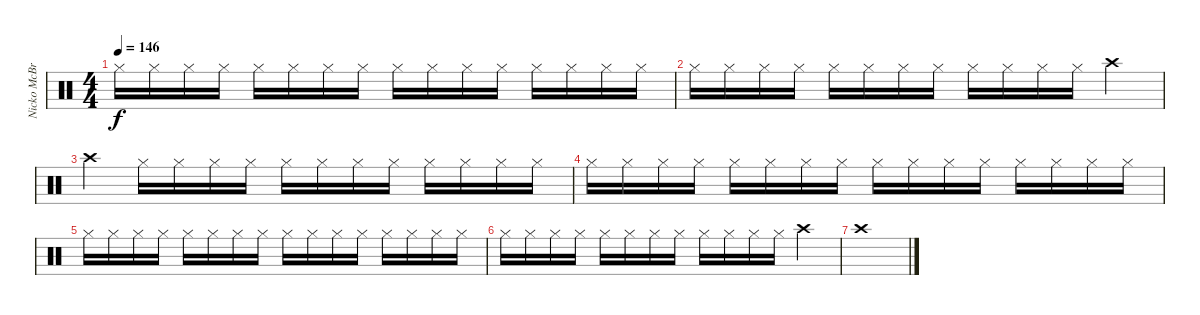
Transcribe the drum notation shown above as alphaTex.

\track ("Nicko McBrain" "Nicko McBr") {instrument percussion}
\staff {score}
\articulation defaults
\ts (4 4)
\tempo 146
\clef neutral
\ks c "Hi-Hat (closed)".16{dy f} "Hi-Hat (closed)".16 "Hi-Hat (closed)".16 "Hi-Hat (closed)".16 "Hi-Hat (closed)".16 "Hi-Hat (closed)".16 "Hi-Hat (closed)".16 "Hi-Hat (closed)".16 "Hi-Hat (closed)".16 "Hi-Hat (closed)".16 "Hi-Hat (closed)".16 "Hi-Hat (closed)".16 "Hi-Hat (closed)".16 "Hi-Hat (closed)".16 "Hi-Hat (closed)".16 "Hi-Hat (closed)".16
|
"Hi-Hat (closed)".16 "Hi-Hat (closed)".16 "Hi-Hat (closed)".16 "Hi-Hat (closed)".16 "Hi-Hat (closed)".16 "Hi-Hat (closed)".16 "Hi-Hat (closed)".16 "Hi-Hat (closed)".16 "Hi-Hat (closed)".16 "Hi-Hat (closed)".16 "Hi-Hat (closed)".16 "Hi-Hat (closed)".16 "Crash high (hit)".4 |
"Crash high (hit)".4 "Hi-Hat (closed)".16 "Hi-Hat (closed)".16 "Hi-Hat (closed)".16 "Hi-Hat (closed)".16 "Hi-Hat (closed)".16 "Hi-Hat (closed)".16 "Hi-Hat (closed)".16 "Hi-Hat (closed)".16 "Hi-Hat (closed)".16 "Hi-Hat (closed)".16 "Hi-Hat (closed)".16 "Hi-Hat (closed)".16 |
"Hi-Hat (closed)".16 "Hi-Hat (closed)".16 "Hi-Hat (closed)".16 "Hi-Hat (closed)".16 "Hi-Hat (closed)".16 "Hi-Hat (closed)".16 "Hi-Hat (closed)".16 "Hi-Hat (closed)".16 "Hi-Hat (closed)".16 "Hi-Hat (closed)".16 "Hi-Hat (closed)".16 "Hi-Hat (closed)".16 "Hi-Hat (closed)".16 "Hi-Hat (closed)".16 "Hi-Hat (closed)".16 "Hi-Hat (closed)".16 |
"Hi-Hat (closed)".16 "Hi-Hat (closed)".16 "Hi-Hat (closed)".16 "Hi-Hat (closed)".16 "Hi-Hat (closed)".16 "Hi-Hat (closed)".16 "Hi-Hat (closed)".16 "Hi-Hat (closed)".16 "Hi-Hat (closed)".16 "Hi-Hat (closed)".16 "Hi-Hat (closed)".16 "Hi-Hat (closed)".16 "Hi-Hat (closed)".16 "Hi-Hat (closed)".16 "Hi-Hat (closed)".16 "Hi-Hat (closed)".16 |
"Hi-Hat (closed)".16 "Hi-Hat (closed)".16 "Hi-Hat (closed)".16 "Hi-Hat (closed)".16 "Hi-Hat (closed)".16 "Hi-Hat (closed)".16 "Hi-Hat (closed)".16 "Hi-Hat (closed)".16 "Hi-Hat (closed)".16 "Hi-Hat (closed)".16 "Hi-Hat (closed)".16 "Hi-Hat (closed)".16 "Crash high (hit)".4 |
"Crash high (hit)".1
